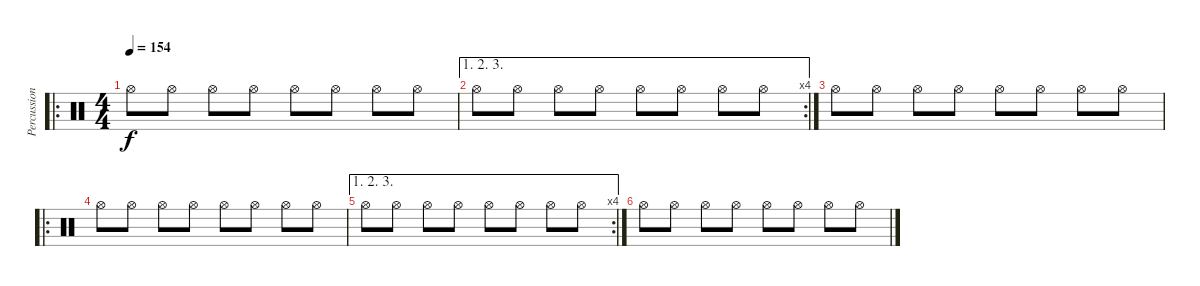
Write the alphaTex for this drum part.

\track ("Percussions" "Percussion") {instrument percussion}
\staff {score}
\articulation defaults
\ro
\ts (4 4)
\tempo 154
\clef neutral
\ks c "Hi-Hat (open)".8{dy f} "Hi-Hat (open)".8 "Hi-Hat (open)".8 "Hi-Hat (open)".8 "Hi-Hat (open)".8 "Hi-Hat (open)".8 "Hi-Hat (open)".8 "Hi-Hat (open)".8
|
\ae (1 2 3)
\rc 4 "Hi-Hat (open)".8 "Hi-Hat (open)".8 "Hi-Hat (open)".8 "Hi-Hat (open)".8 "Hi-Hat (open)".8 "Hi-Hat (open)".8 "Hi-Hat (open)".8 "Hi-Hat (open)".8
|
"Hi-Hat (open)".8 "Hi-Hat (open)".8 "Hi-Hat (open)".8 "Hi-Hat (open)".8 "Hi-Hat (open)".8 "Hi-Hat (open)".8 "Hi-Hat (open)".8 "Hi-Hat (open)".8 |
\ro "Hi-Hat (open)".8 "Hi-Hat (open)".8 "Hi-Hat (open)".8 "Hi-Hat (open)".8 "Hi-Hat (open)".8 "Hi-Hat (open)".8 "Hi-Hat (open)".8 "Hi-Hat (open)".8
|
\ae (1 2 3)
\rc 4 "Hi-Hat (open)".8 "Hi-Hat (open)".8 "Hi-Hat (open)".8 "Hi-Hat (open)".8 "Hi-Hat (open)".8 "Hi-Hat (open)".8 "Hi-Hat (open)".8 "Hi-Hat (open)".8
|
"Hi-Hat (open)".8 "Hi-Hat (open)".8 "Hi-Hat (open)".8 "Hi-Hat (open)".8 "Hi-Hat (open)".8 "Hi-Hat (open)".8 "Hi-Hat (open)".8 "Hi-Hat (open)".8
